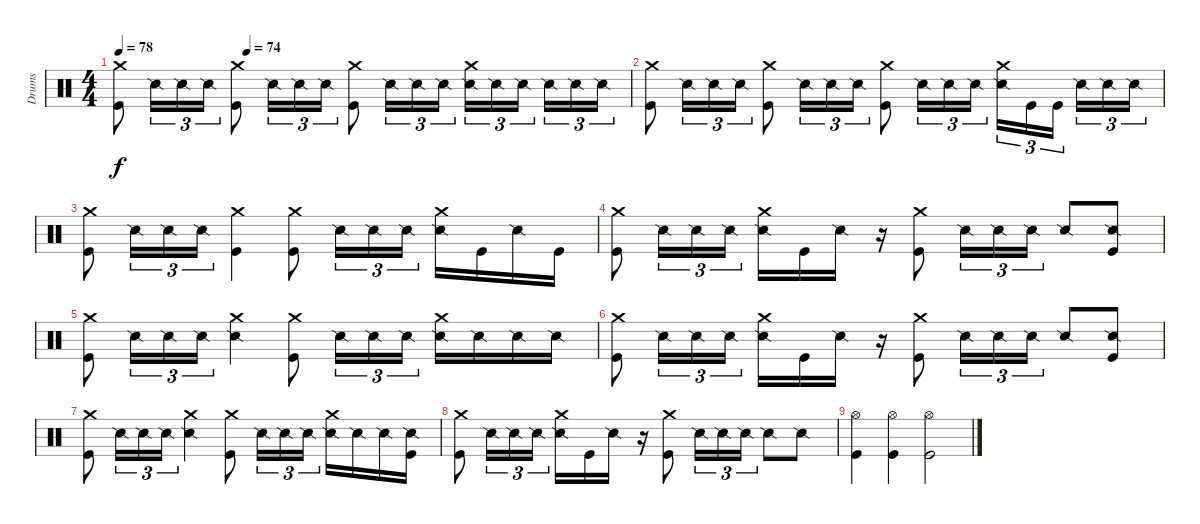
\track ("Drums" "Drums") {instrument percussion}
\staff {score}
\articulation defaults
\ts (4 4)
\tempo 78
\tempo (74 0.25)
\clef neutral
\ks c
("Crash medium (hit)" "Kick (hit)").8{dy f} "Snare (side stick) 2".16{tu (3 2)} "Snare (side stick) 2".16{tu (3 2)} "Snare (side stick) 2".16{tu (3 2)} ("Crash medium (hit)" "Kick (hit)").8 "Snare (side stick) 2".16{tu (3 2)} "Snare (side stick) 2".16{tu (3 2)} "Snare (side stick) 2".16{tu (3 2)} ("Crash medium (hit)" "Kick (hit)").8 "Snare (side stick) 2".16{tu (3 2)} "Snare (side stick) 2".16{tu (3 2)} "Snare (side stick) 2".16{tu (3 2)} ("Crash medium (hit)" "Snare (side stick) 2").16{tu (3 2)} "Snare (side stick) 2".16{tu (3 2)} "Snare (side stick) 2".16{tu (3 2)} "Snare (side stick) 2".16{tu (3 2)} "Snare (side stick) 2".16{tu (3 2)} "Snare (side stick) 2".16{tu (3 2)} |
("Crash medium (hit)" "Kick (hit)").8{volume 11} "Snare (side stick) 2".16{tu (3 2)} "Snare (side stick) 2".16{tu (3 2)} "Snare (side stick) 2".16{tu (3 2)} ("Crash medium (hit)" "Kick (hit)").8 "Snare (side stick) 2".16{tu (3 2)} "Snare (side stick) 2".16{tu (3 2)} "Snare (side stick) 2".16{tu (3 2)} ("Crash medium (hit)" "Kick (hit)").8 "Snare (side stick) 2".16{tu (3 2)} "Snare (side stick) 2".16{tu (3 2)} "Snare (side stick) 2".16{tu (3 2)} ("Crash medium (hit)" "Snare (side stick) 2").16{tu (3 2)} "Kick (hit)".16{tu (3 2)} "Kick (hit)".16{tu (3 2)} "Snare (side stick) 2".16{tu (3 2)} "Snare (side stick) 2".16{tu (3 2)} "Snare (side stick) 2".16{tu (3 2)} |
("Crash medium (hit)" "Kick (hit)").8 "Snare (side stick) 2".16{tu (3 2)} "Snare (side stick) 2".16{tu (3 2)} "Snare (side stick) 2".16{tu (3 2)} ("Crash medium (hit)" "Kick (hit)").4 ("Crash medium (hit)" "Kick (hit)").8 "Snare (side stick) 2".16{tu (3 2)} "Snare (side stick) 2".16{tu (3 2)} "Snare (side stick) 2".16{tu (3 2)} ("Crash medium (hit)" "Snare (side stick) 2").16 "Kick (hit)".16 "Snare (side stick) 2".16 "Kick (hit)".16 |
("Crash medium (hit)" "Kick (hit)").8 "Snare (side stick) 2".16{tu (3 2)} "Snare (side stick) 2".16{tu (3 2)} "Snare (side stick) 2".16{tu (3 2)} ("Crash medium (hit)" "Snare (side stick) 2").16 "Kick (hit)".16 "Snare (side stick) 2".16 r.16 ("Crash medium (hit)" "Kick (hit)").8 "Snare (side stick) 2".16{tu (3 2)} "Snare (side stick) 2".16{tu (3 2)} "Snare (side stick) 2".16{tu (3 2)} "Snare (side stick) 2".8 ("Snare (side stick) 2" "Kick (hit)").8 |
("Crash medium (hit)" "Kick (hit)").8 "Snare (side stick) 2".16{tu (3 2)} "Snare (side stick) 2".16{tu (3 2)} "Snare (side stick) 2".16{tu (3 2)} ("Crash medium (hit)" "Snare (side stick) 2").4 ("Crash medium (hit)" "Kick (hit)").8 "Snare (side stick) 2".16{tu (3 2)} "Snare (side stick) 2".16{tu (3 2)} "Snare (side stick) 2".16{tu (3 2)} ("Crash medium (hit)" "Snare (side stick) 2").16 "Snare (side stick) 2".16 "Snare (side stick) 2".16 "Snare (side stick) 2".16 |
("Crash medium (hit)" "Kick (hit)").8 "Snare (side stick) 2".16{tu (3 2)} "Snare (side stick) 2".16{tu (3 2)} "Snare (side stick) 2".16{tu (3 2)} ("Crash medium (hit)" "Snare (side stick) 2").16 "Kick (hit)".16 "Snare (side stick) 2".16 r.16 ("Crash medium (hit)" "Kick (hit)").8 "Snare (side stick) 2".16{tu (3 2)} "Snare (side stick) 2".16{tu (3 2)} "Snare (side stick) 2".16{tu (3 2)} "Snare (side stick) 2".8 ("Snare (side stick) 2" "Kick (hit)").8 |
("Crash medium (hit)" "Kick (hit)").8 "Snare (side stick) 2".16{tu (3 2)} "Snare (side stick) 2".16{tu (3 2)} "Snare (side stick) 2".16{tu (3 2)} ("Crash medium (hit)" "Snare (side stick) 2").4 ("Crash medium (hit)" "Kick (hit)").8 "Snare (side stick) 2".16{tu (3 2)} "Snare (side stick) 2".16{tu (3 2)} "Snare (side stick) 2".16{tu (3 2)} ("Crash medium (hit)" "Snare (side stick) 2").16 "Snare (side stick) 2".16 "Snare (side stick) 2".16 ("Snare (side stick) 2" "Kick (hit)").16 |
("Crash medium (hit)" "Kick (hit)").8 "Snare (side stick) 2".16{tu (3 2)} "Snare (side stick) 2".16{tu (3 2)} "Snare (side stick) 2".16{tu (3 2)} ("Crash medium (hit)" "Snare (side stick) 2").16 "Kick (hit)".16 "Snare (side stick) 2".16 r.16 ("Crash medium (hit)" "Kick (hit)").8 "Snare (side stick) 2".16{tu (3 2)} "Snare (side stick) 2".16{tu (3 2)} "Snare (side stick) 2".16{tu (3 2)} "Snare (side stick) 2".8 "Snare (side stick) 2".8 |
("Hi-Hat (open)" "Kick (hit)").4 ("Hi-Hat (open)" "Kick (hit)").4 ("Hi-Hat (open)" "Kick (hit)").2
